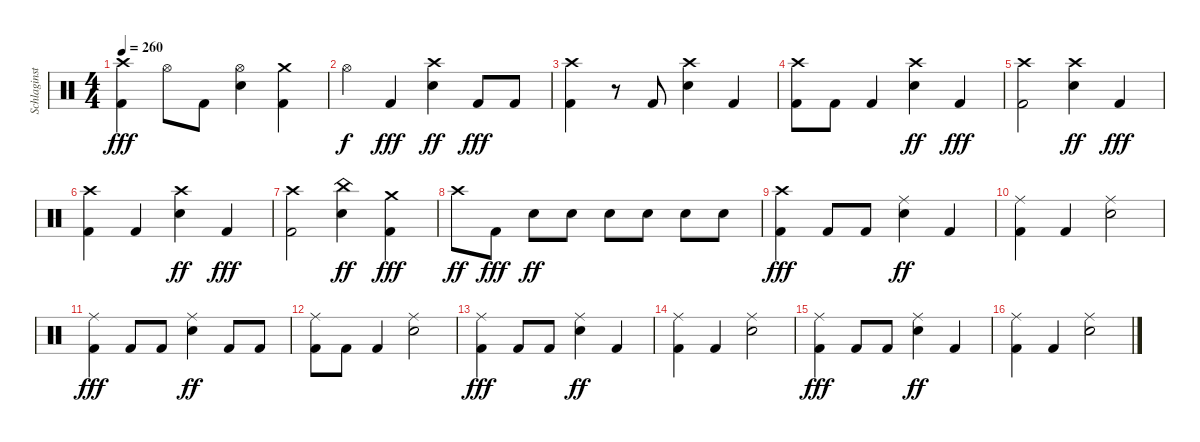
\track ("Schlaginstrumente - Auswahl" "Schlaginst") {instrument percussion}
\staff {score}
\articulation defaults
\ts (4 4)
\tempo 260
\clef neutral
\ks c
("Crash high (hit)" "Kick (hit) 2").4{dy fff} "Hi-Hat (open)".8 "Kick (hit) 2".8 ("Hi-Hat (open)" "Snare (hit) 2").4 ("Crash medium (hit)" "Kick (hit) 2").4 |
"Hi-Hat (open)".4{dy f} "Kick (hit) 2".4{dy fff} ("Crash high (hit)" "Snare (hit) 2").4{dy ff} "Kick (hit) 2".8{dy fff} "Kick (hit) 2".8 |
("Crash high (hit)" "Kick (hit) 2").4 r.8 "Kick (hit) 2".8 ("Crash high (hit)" "Snare (hit) 2").4 "Kick (hit) 2".4 |
("Crash high (hit)" "Kick (hit) 2").8 "Kick (hit) 2".8 "Kick (hit) 2".4 ("Crash high (hit)" "Snare (hit) 2").4{dy ff} "Kick (hit) 2".4{dy fff} |
("Crash high (hit)" "Kick (hit) 2").2 ("Crash high (hit)" "Snare (hit) 2").4{dy ff} "Kick (hit) 2".4{dy fff} |
("Crash high (hit)" "Kick (hit) 2").4 "Kick (hit) 2".4 ("Crash high (hit)" "Snare (hit) 2").4{dy ff} "Kick (hit) 2".4{dy fff} |
("Crash high (hit)" "Kick (hit) 2").2 ("China (hit)" "Snare (hit) 2").4{dy ff} ("Crash medium (hit)" "Kick (hit) 2").4{dy fff} |
"Crash high (hit)".8{dy ff} "Kick (hit) 2".8{dy fff} "Snare (hit) 2".8{dy ff} "Snare (hit) 2".8 "Snare (hit) 2".8 "Snare (hit) 2".8 "Snare (hit) 2".8 "Snare (hit) 2".8 |
("Crash high (hit)" "Kick (hit) 2").4{dy fff} "Kick (hit) 2".8 "Kick (hit) 2".8 ("Ride (middle)" "Snare (hit) 2").4{dy ff} "Kick (hit) 2".4 |
("Ride (middle)" "Kick (hit) 2").4 "Kick (hit) 2".4 ("Ride (middle)" "Snare (hit) 2").2 |
("Ride (middle)" "Kick (hit) 2").4{dy fff} "Kick (hit) 2".8 "Kick (hit) 2".8 ("Ride (middle)" "Snare (hit) 2").4{dy ff} "Kick (hit) 2".8 "Kick (hit) 2".8 |
("Ride (middle)" "Kick (hit) 2").8 "Kick (hit) 2".8 "Kick (hit) 2".4 ("Ride (middle)" "Snare (hit) 2").2 |
("Ride (middle)" "Kick (hit) 2").4{dy fff} "Kick (hit) 2".8 "Kick (hit) 2".8 ("Ride (middle)" "Snare (hit) 2").4{dy ff} "Kick (hit) 2".4 |
("Ride (middle)" "Kick (hit) 2").4 "Kick (hit) 2".4 ("Ride (middle)" "Snare (hit) 2").2 |
("Ride (middle)" "Kick (hit) 2").4{dy fff} "Kick (hit) 2".8 "Kick (hit) 2".8 ("Ride (middle)" "Snare (hit) 2").4{dy ff} "Kick (hit) 2".4 |
("Ride (middle)" "Kick (hit) 2").4 "Kick (hit) 2".4 ("Ride (middle)" "Snare (hit) 2").2
